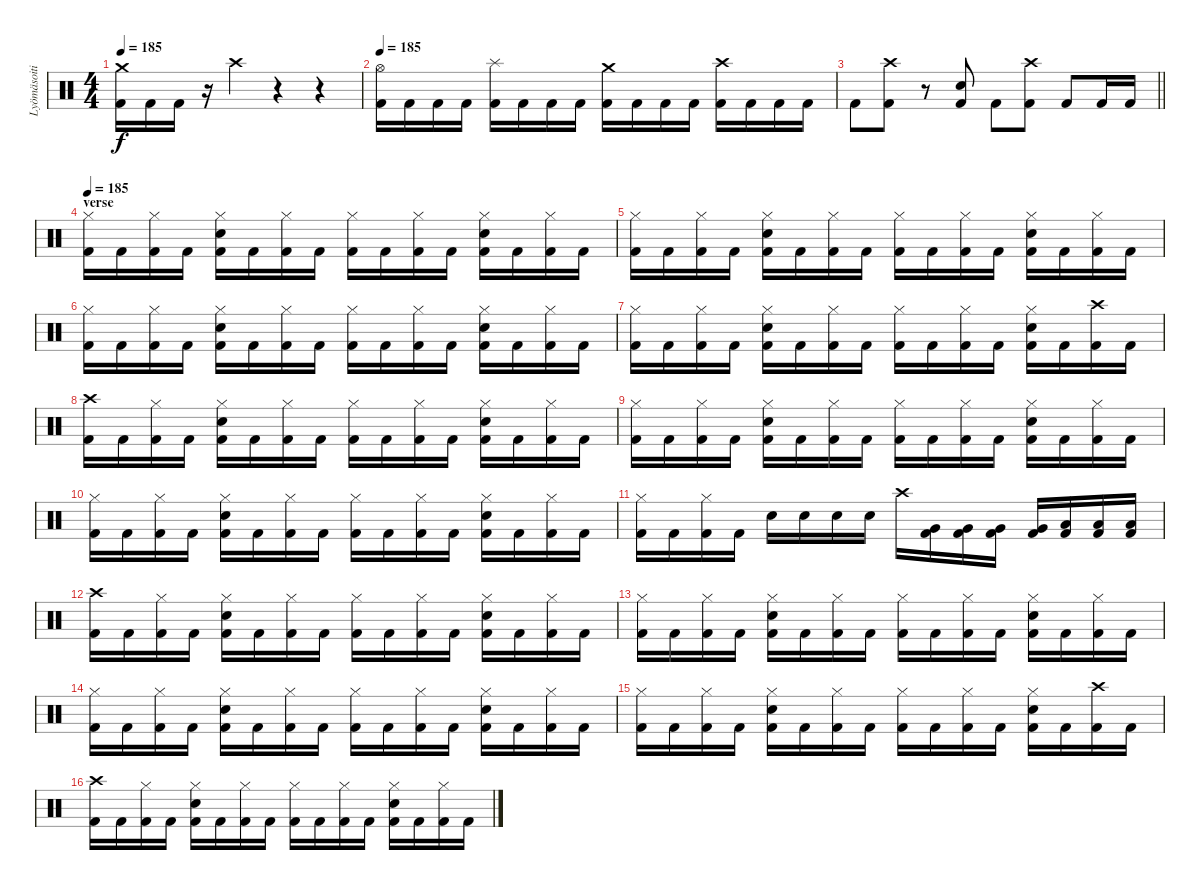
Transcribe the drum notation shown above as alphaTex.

\track ("Lyömäsoitin" "Lyömäsoiti") {instrument percussion}
\staff {score}
\articulation defaults
\ts (4 4)
\tempo 185
\clef neutral
\ks c
("Crash medium (hit)" "Kick (hit) 2").16{dy f} "Kick (hit) 2".16 "Kick (hit) 2".16 r.16 "Crash high (hit)".4 r.4 r.4 |
\tempo 185
("Hi-Hat (open)" "Kick (hit) 2").16 "Kick (hit) 2".16 "Kick (hit) 2".16 "Kick (hit) 2".16 ("Splash (hit)" "Kick (hit) 2").16 "Kick (hit) 2".16 "Kick (hit) 2".16 "Kick (hit) 2".16 ("Crash medium (hit)" "Kick (hit) 2").16 "Kick (hit) 2".16 "Kick (hit) 2".16 "Kick (hit) 2".16 ("Crash high (hit)" "Kick (hit) 2").16 "Kick (hit) 2".16 "Kick (hit) 2".16 "Kick (hit) 2".16 |
\barLineRight lightlight "Kick (hit) 2".8
("Crash high (hit)" "Kick (hit) 2").8 r.8 ("Electric Snare (hit)" "Kick (hit) 2").8 "Kick (hit) 2".8 ("Crash high (hit)" "Kick (hit) 2").8 "Kick (hit) 2".8 "Kick (hit) 2".16 "Kick (hit) 2".16 |
\section ("" "verse")
\tempo 185
("Hi-Hat (closed)" "Kick (hit) 2").16 "Kick (hit) 2".16 ("Hi-Hat (closed)" "Kick (hit) 2").16 "Kick (hit) 2".16 ("Hi-Hat (closed)" "Electric Snare (hit)" "Kick (hit) 2").16 "Kick (hit) 2".16 ("Hi-Hat (closed)" "Kick (hit) 2").16 "Kick (hit) 2".16 ("Hi-Hat (closed)" "Kick (hit) 2").16 "Kick (hit) 2".16 ("Hi-Hat (closed)" "Kick (hit) 2").16 "Kick (hit) 2".16 ("Hi-Hat (closed)" "Electric Snare (hit)" "Kick (hit) 2").16 "Kick (hit) 2".16 ("Hi-Hat (closed)" "Kick (hit) 2").16 "Kick (hit) 2".16 |
("Hi-Hat (closed)" "Kick (hit) 2").16 "Kick (hit) 2".16 ("Hi-Hat (closed)" "Kick (hit) 2").16 "Kick (hit) 2".16 ("Hi-Hat (closed)" "Electric Snare (hit)" "Kick (hit) 2").16 "Kick (hit) 2".16 ("Hi-Hat (closed)" "Kick (hit) 2").16 "Kick (hit) 2".16 ("Hi-Hat (closed)" "Kick (hit) 2").16 "Kick (hit) 2".16 ("Hi-Hat (closed)" "Kick (hit) 2").16 "Kick (hit) 2".16 ("Hi-Hat (closed)" "Electric Snare (hit)" "Kick (hit) 2").16 "Kick (hit) 2".16 ("Hi-Hat (closed)" "Kick (hit) 2").16 "Kick (hit) 2".16 |
("Hi-Hat (closed)" "Kick (hit) 2").16 "Kick (hit) 2".16 ("Hi-Hat (closed)" "Kick (hit) 2").16 "Kick (hit) 2".16 ("Hi-Hat (closed)" "Electric Snare (hit)" "Kick (hit) 2").16 "Kick (hit) 2".16 ("Hi-Hat (closed)" "Kick (hit) 2").16 "Kick (hit) 2".16 ("Hi-Hat (closed)" "Kick (hit) 2").16 "Kick (hit) 2".16 ("Hi-Hat (closed)" "Kick (hit) 2").16 "Kick (hit) 2".16 ("Hi-Hat (closed)" "Electric Snare (hit)" "Kick (hit) 2").16 "Kick (hit) 2".16 ("Hi-Hat (closed)" "Kick (hit) 2").16 "Kick (hit) 2".16 |
("Hi-Hat (closed)" "Kick (hit) 2").16 "Kick (hit) 2".16 ("Hi-Hat (closed)" "Kick (hit) 2").16 "Kick (hit) 2".16 ("Hi-Hat (closed)" "Electric Snare (hit)" "Kick (hit) 2").16 "Kick (hit) 2".16 ("Hi-Hat (closed)" "Kick (hit) 2").16 "Kick (hit) 2".16 ("Hi-Hat (closed)" "Kick (hit) 2").16 "Kick (hit) 2".16 ("Hi-Hat (closed)" "Kick (hit) 2").16 "Kick (hit) 2".16 ("Hi-Hat (closed)" "Electric Snare (hit)" "Kick (hit) 2").16 "Kick (hit) 2".16 ("Crash high (hit)" "Kick (hit) 2").16 "Kick (hit) 2".16 |
("Crash high (hit)" "Kick (hit) 2").16 "Kick (hit) 2".16 ("Hi-Hat (closed)" "Kick (hit) 2").16 "Kick (hit) 2".16 ("Hi-Hat (closed)" "Electric Snare (hit)" "Kick (hit) 2").16 "Kick (hit) 2".16 ("Hi-Hat (closed)" "Kick (hit) 2").16 "Kick (hit) 2".16 ("Hi-Hat (closed)" "Kick (hit) 2").16 "Kick (hit) 2".16 ("Hi-Hat (closed)" "Kick (hit) 2").16 "Kick (hit) 2".16 ("Hi-Hat (closed)" "Electric Snare (hit)" "Kick (hit) 2").16 "Kick (hit) 2".16 ("Hi-Hat (closed)" "Kick (hit) 2").16 "Kick (hit) 2".16 |
("Hi-Hat (closed)" "Kick (hit) 2").16 "Kick (hit) 2".16 ("Hi-Hat (closed)" "Kick (hit) 2").16 "Kick (hit) 2".16 ("Hi-Hat (closed)" "Electric Snare (hit)" "Kick (hit) 2").16 "Kick (hit) 2".16 ("Hi-Hat (closed)" "Kick (hit) 2").16 "Kick (hit) 2".16 ("Hi-Hat (closed)" "Kick (hit) 2").16 "Kick (hit) 2".16 ("Hi-Hat (closed)" "Kick (hit) 2").16 "Kick (hit) 2".16 ("Hi-Hat (closed)" "Electric Snare (hit)" "Kick (hit) 2").16 "Kick (hit) 2".16 ("Hi-Hat (closed)" "Kick (hit) 2").16 "Kick (hit) 2".16 |
("Hi-Hat (closed)" "Kick (hit) 2").16 "Kick (hit) 2".16 ("Hi-Hat (closed)" "Kick (hit) 2").16 "Kick (hit) 2".16 ("Hi-Hat (closed)" "Electric Snare (hit)" "Kick (hit) 2").16 "Kick (hit) 2".16 ("Hi-Hat (closed)" "Kick (hit) 2").16 "Kick (hit) 2".16 ("Hi-Hat (closed)" "Kick (hit) 2").16 "Kick (hit) 2".16 ("Hi-Hat (closed)" "Kick (hit) 2").16 "Kick (hit) 2".16 ("Hi-Hat (closed)" "Electric Snare (hit)" "Kick (hit) 2").16 "Kick (hit) 2".16 ("Hi-Hat (closed)" "Kick (hit) 2").16 "Kick (hit) 2".16 |
("Hi-Hat (closed)" "Kick (hit) 2").16 "Kick (hit) 2".16 ("Hi-Hat (closed)" "Kick (hit) 2").16 "Kick (hit) 2".16 "Electric Snare (hit)".16 "Electric Snare (hit)".16 "Electric Snare (hit)".16 "Electric Snare (hit)".16 "Crash high (hit)".16 ("Very Low Tom (hit)" "Kick (hit) 2").16 ("Very Low Tom (hit)" "Kick (hit) 2").16 ("Very Low Tom (hit)" "Kick (hit) 2").16 ("Very Low Tom (hit)" "Kick (hit) 2").16 ("Low Floor Tom (hit)" "Kick (hit) 2").16 ("Low Floor Tom (hit)" "Kick (hit) 2").16 ("Low Floor Tom (hit)" "Kick (hit) 2").16 |
("Crash high (hit)" "Kick (hit) 2").16 "Kick (hit) 2".16 ("Hi-Hat (closed)" "Kick (hit) 2").16 "Kick (hit) 2".16 ("Hi-Hat (closed)" "Electric Snare (hit)" "Kick (hit) 2").16 "Kick (hit) 2".16 ("Hi-Hat (closed)" "Kick (hit) 2").16 "Kick (hit) 2".16 ("Hi-Hat (closed)" "Kick (hit) 2").16 "Kick (hit) 2".16 ("Hi-Hat (closed)" "Kick (hit) 2").16 "Kick (hit) 2".16 ("Hi-Hat (closed)" "Electric Snare (hit)" "Kick (hit) 2").16 "Kick (hit) 2".16 ("Hi-Hat (closed)" "Kick (hit) 2").16 "Kick (hit) 2".16 |
("Hi-Hat (closed)" "Kick (hit) 2").16 "Kick (hit) 2".16 ("Hi-Hat (closed)" "Kick (hit) 2").16 "Kick (hit) 2".16 ("Hi-Hat (closed)" "Electric Snare (hit)" "Kick (hit) 2").16 "Kick (hit) 2".16 ("Hi-Hat (closed)" "Kick (hit) 2").16 "Kick (hit) 2".16 ("Hi-Hat (closed)" "Kick (hit) 2").16 "Kick (hit) 2".16 ("Hi-Hat (closed)" "Kick (hit) 2").16 "Kick (hit) 2".16 ("Hi-Hat (closed)" "Electric Snare (hit)" "Kick (hit) 2").16 "Kick (hit) 2".16 ("Hi-Hat (closed)" "Kick (hit) 2").16 "Kick (hit) 2".16 |
("Hi-Hat (closed)" "Kick (hit) 2").16 "Kick (hit) 2".16 ("Hi-Hat (closed)" "Kick (hit) 2").16 "Kick (hit) 2".16 ("Hi-Hat (closed)" "Electric Snare (hit)" "Kick (hit) 2").16 "Kick (hit) 2".16 ("Hi-Hat (closed)" "Kick (hit) 2").16 "Kick (hit) 2".16 ("Hi-Hat (closed)" "Kick (hit) 2").16 "Kick (hit) 2".16 ("Hi-Hat (closed)" "Kick (hit) 2").16 "Kick (hit) 2".16 ("Hi-Hat (closed)" "Electric Snare (hit)" "Kick (hit) 2").16 "Kick (hit) 2".16 ("Hi-Hat (closed)" "Kick (hit) 2").16 "Kick (hit) 2".16 |
("Hi-Hat (closed)" "Kick (hit) 2").16 "Kick (hit) 2".16 ("Hi-Hat (closed)" "Kick (hit) 2").16 "Kick (hit) 2".16 ("Hi-Hat (closed)" "Electric Snare (hit)" "Kick (hit) 2").16 "Kick (hit) 2".16 ("Hi-Hat (closed)" "Kick (hit) 2").16 "Kick (hit) 2".16 ("Hi-Hat (closed)" "Kick (hit) 2").16 "Kick (hit) 2".16 ("Hi-Hat (closed)" "Kick (hit) 2").16 "Kick (hit) 2".16 ("Hi-Hat (closed)" "Electric Snare (hit)" "Kick (hit) 2").16 "Kick (hit) 2".16 ("Crash high (hit)" "Kick (hit) 2").16 "Kick (hit) 2".16 |
("Crash high (hit)" "Kick (hit) 2").16 "Kick (hit) 2".16 ("Hi-Hat (closed)" "Kick (hit) 2").16 "Kick (hit) 2".16 ("Hi-Hat (closed)" "Electric Snare (hit)" "Kick (hit) 2").16 "Kick (hit) 2".16 ("Hi-Hat (closed)" "Kick (hit) 2").16 "Kick (hit) 2".16 ("Hi-Hat (closed)" "Kick (hit) 2").16 "Kick (hit) 2".16 ("Hi-Hat (closed)" "Kick (hit) 2").16 "Kick (hit) 2".16 ("Hi-Hat (closed)" "Electric Snare (hit)" "Kick (hit) 2").16 "Kick (hit) 2".16 ("Hi-Hat (closed)" "Kick (hit) 2").16 "Kick (hit) 2".16
